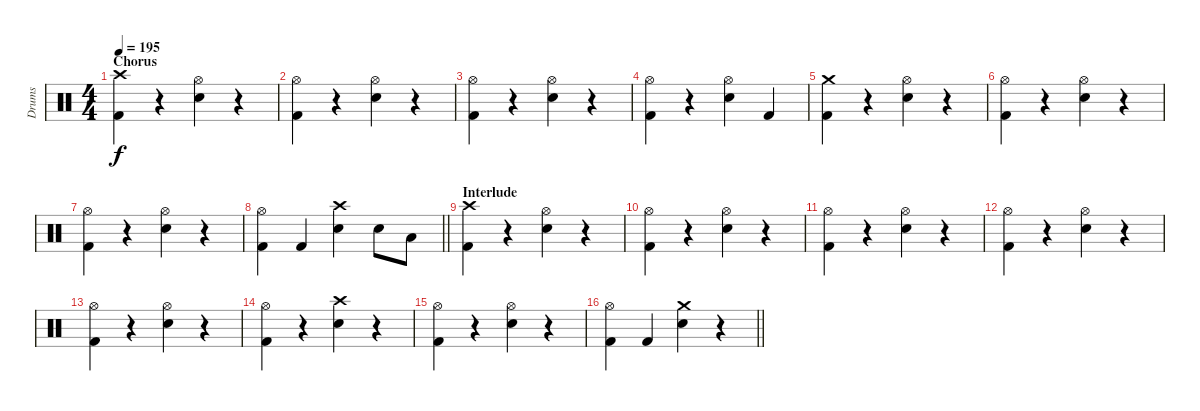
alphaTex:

\track ("Drums" "Drums") {instrument percussion}
\staff {score}
\articulation defaults
\ts (4 4)
\section ("" "Chorus")
\tempo 195
\clef neutral
\ks c
("Crash high (hit)" "Kick (hit) 2").4{dy f} r.4 ("Hi-Hat (open)" "Electric Snare (hit)").4 r.4 |
("Hi-Hat (open)" "Kick (hit) 2").4 r.4 ("Hi-Hat (open)" "Electric Snare (hit)").4 r.4 |
("Hi-Hat (open)" "Kick (hit) 2").4 r.4 ("Hi-Hat (open)" "Electric Snare (hit)").4 r.4 |
("Hi-Hat (open)" "Kick (hit) 2").4 r.4 ("Hi-Hat (open)" "Electric Snare (hit)").4 "Kick (hit) 2".4 |
("Crash medium (hit)" "Kick (hit) 2").4 r.4 ("Hi-Hat (open)" "Electric Snare (hit)").4 r.4 |
("Hi-Hat (open)" "Kick (hit) 2").4 r.4 ("Hi-Hat (open)" "Electric Snare (hit)").4 r.4 |
("Hi-Hat (open)" "Kick (hit) 2").4 r.4 ("Hi-Hat (open)" "Electric Snare (hit)").4 r.4 |
\barLineRight lightlight
("Hi-Hat (open)" "Kick (hit) 2").4 "Kick (hit) 2".4 ("Crash high (hit)" "Electric Snare (hit)").4 "Electric Snare (hit)".8 "Low Tom (hit)".8 |
\section ("" "Interlude")
("Crash high (hit)" "Kick (hit) 2").4 r.4 ("Hi-Hat (open)" "Electric Snare (hit)").4 r.4 |
("Hi-Hat (open)" "Kick (hit) 2").4 r.4 ("Hi-Hat (open)" "Electric Snare (hit)").4 r.4 |
("Hi-Hat (open)" "Kick (hit) 2").4 r.4 ("Hi-Hat (open)" "Electric Snare (hit)").4 r.4 |
("Hi-Hat (open)" "Kick (hit) 2").4 r.4 ("Hi-Hat (open)" "Electric Snare (hit)").4 r.4 |
("Hi-Hat (open)" "Kick (hit) 2").4 r.4 ("Hi-Hat (open)" "Electric Snare (hit)").4 r.4 |
("Hi-Hat (open)" "Kick (hit) 2").4 r.4 ("Crash high (hit)" "Electric Snare (hit)").4 r.4 |
("Hi-Hat (open)" "Kick (hit) 2").4 r.4 ("Hi-Hat (open)" "Electric Snare (hit)").4 r.4 |
\barLineRight lightlight
("Hi-Hat (open)" "Kick (hit) 2").4 "Kick (hit) 2".4 ("Crash medium (hit)" "Electric Snare (hit)").4 r.4
